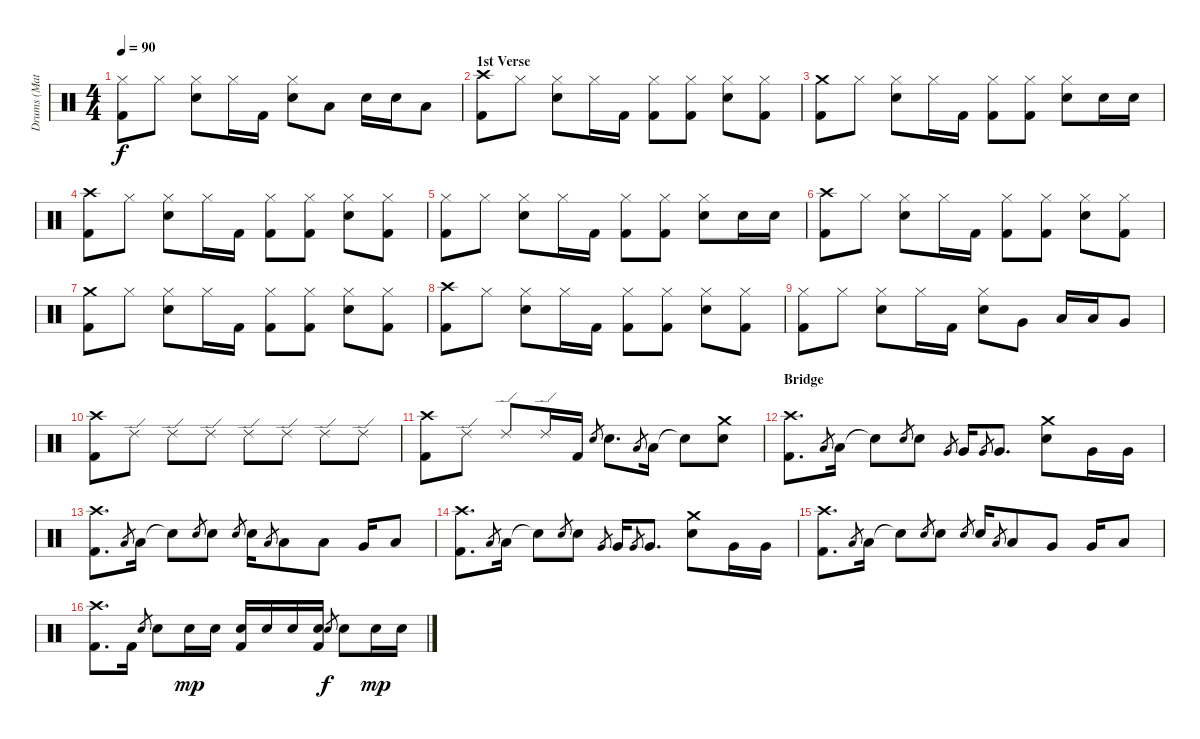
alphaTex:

\track ("Drums (Matt)" "Drums (Mat") {instrument percussion}
\staff {score}
\articulation defaults
\ts (4 4)
\tempo 90
\clef neutral
\ks c
("Hi-Hat (closed)" "Kick (hit) 2").8{dy f} "Hi-Hat (closed)".8 ("Hi-Hat (closed)" "Snare (hit) 2").8 "Hi-Hat (closed)".16 "Kick (hit) 2".16 ("Hi-Hat (closed)" "Snare (hit) 2").8 "Low Tom (hit)".8 "Snare (hit) 2".16 "Snare (hit) 2".16 "Low Tom (hit)".8 |
\section ("" "1st Verse")
("Crash high (hit)" "Kick (hit) 2").8 "Hi-Hat (closed)".8 ("Hi-Hat (closed)" "Snare (hit) 2").8 "Hi-Hat (closed)".16 "Kick (hit) 2".16 ("Hi-Hat (closed)" "Kick (hit) 2").8 ("Hi-Hat (closed)" "Kick (hit) 2").8 ("Hi-Hat (closed)" "Snare (hit) 2").8 ("Hi-Hat (closed)" "Kick (hit) 2").8 |
("Crash medium (hit)" "Kick (hit) 2").8 "Hi-Hat (closed)".8 ("Hi-Hat (closed)" "Snare (hit) 2").8 "Hi-Hat (closed)".16 "Kick (hit) 2".16 ("Hi-Hat (closed)" "Kick (hit) 2").8 ("Hi-Hat (closed)" "Kick (hit) 2").8 ("Hi-Hat (closed)" "Snare (hit) 2").8 "Snare (hit) 2".16 "Snare (hit) 2".16 |
("Crash high (hit)" "Kick (hit) 2").8 "Hi-Hat (closed)".8 ("Hi-Hat (closed)" "Snare (hit) 2").8 "Hi-Hat (closed)".16 "Kick (hit) 2".16 ("Hi-Hat (closed)" "Kick (hit) 2").8 ("Hi-Hat (closed)" "Kick (hit) 2").8 ("Hi-Hat (closed)" "Snare (hit) 2").8 ("Hi-Hat (closed)" "Kick (hit) 2").8 |
("Hi-Hat (closed)" "Kick (hit) 2").8 "Hi-Hat (closed)".8 ("Hi-Hat (closed)" "Snare (hit) 2").8 "Hi-Hat (closed)".16 "Kick (hit) 2".16 ("Hi-Hat (closed)" "Kick (hit) 2").8 ("Hi-Hat (closed)" "Kick (hit) 2").8 ("Hi-Hat (closed)" "Snare (hit) 2").8 "Snare (hit) 2".16 "Snare (hit) 2".16 |
("Crash high (hit)" "Kick (hit) 2").8 "Hi-Hat (closed)".8 ("Hi-Hat (closed)" "Snare (hit) 2").8 "Hi-Hat (closed)".16 "Kick (hit) 2".16 ("Hi-Hat (closed)" "Kick (hit) 2").8 ("Hi-Hat (closed)" "Kick (hit) 2").8 ("Hi-Hat (closed)" "Snare (hit) 2").8 ("Hi-Hat (closed)" "Kick (hit) 2").8 |
("Crash medium (hit)" "Kick (hit) 2").8 "Hi-Hat (closed)".8 ("Hi-Hat (closed)" "Snare (hit) 2").8 "Hi-Hat (closed)".16 "Kick (hit) 2".16 ("Hi-Hat (closed)" "Kick (hit) 2").8 ("Hi-Hat (closed)" "Kick (hit) 2").8 ("Hi-Hat (closed)" "Snare (hit) 2").8 ("Hi-Hat (closed)" "Kick (hit) 2").8 |
("Crash high (hit)" "Kick (hit) 2").8 "Hi-Hat (closed)".8 ("Hi-Hat (closed)" "Snare (hit) 2").8 "Hi-Hat (closed)".16 "Kick (hit) 2".16 ("Hi-Hat (closed)" "Kick (hit) 2").8 ("Hi-Hat (closed)" "Kick (hit) 2").8 ("Hi-Hat (closed)" "Snare (hit) 2").8 ("Hi-Hat (closed)" "Kick (hit) 2").8 |
("Hi-Hat (closed)" "Kick (hit) 2").8 "Hi-Hat (closed)".8 ("Hi-Hat (closed)" "Snare (hit) 2").8 "Hi-Hat (closed)".16 "Kick (hit) 2".16 ("Hi-Hat (closed)" "Snare (hit) 2").8 "Very Low Tom (hit)".8 "Low Tom (hit)".16 "Low Tom (hit)".16 "Very Low Tom (hit)".8 |
("Crash high (hit)" "Kick (hit) 2").8 "Ride (edge) 2".8 "Ride (edge) 2".8 "Ride (edge) 2".8 "Ride (edge) 2".8 "Ride (edge) 2".8 "Ride (edge) 2".8 "Ride (edge) 2".8 |
("Crash high (hit)" "Kick (hit) 2").8 "Ride (edge) 2".8 "Ride (edge) 2".8 "Ride (edge) 2".16 "Kick (hit) 2".16 "Snare (hit) 2".8{gr} "Snare (hit) 2".8{d} "Low Tom (hit)".8{gr} "Low Tom (hit)".16 "Snare (hit)"{t}.8 ("Crash medium (hit)" "Snare (hit) 2").8 |
\section ("" "Bridge")
("Crash high (hit)" "Kick (hit) 2").8{d} "Low Tom (hit)".8{gr} "Low Tom (hit)".16 "Snare (hit)"{t}.8 "Snare (hit) 2".8{gr} "Snare (hit) 2".8 "Very Low Tom (hit)".8{gr} "Very Low Tom (hit)".16 "Very Low Tom (hit)".8{gr} "Very Low Tom (hit)".8{d} ("Crash medium (hit)" "Snare (hit) 2").8 "Very Low Tom (hit)".16 "Very Low Tom (hit)".16 |
("Crash high (hit)" "Kick (hit) 2").8{d} "Low Tom (hit)".8{gr} "Low Tom (hit)".16 "Snare (hit)"{t}.8 "Snare (hit) 2".8{gr} "Snare (hit) 2".8 "Snare (hit) 2".8{gr} "Snare (hit) 2".16 "Low Tom (hit)".8{gr} "Low Tom (hit)".8 "Low Tom (hit)".8 "Very Low Tom (hit)".16 "Low Floor Tom (hit)".8 |
("Crash high (hit)" "Kick (hit) 2").8{d} "Low Tom (hit)".8{gr} "Low Tom (hit)".16 "Snare (hit)"{t}.8 "Snare (hit) 2".8{gr} "Snare (hit) 2".8 "Very Low Tom (hit)".8{gr} "Very Low Tom (hit)".16 "Very Low Tom (hit)".8{gr} "Very Low Tom (hit)".8{d} ("Crash medium (hit)" "Snare (hit) 2").8 "Very Low Tom (hit)".16 "Very Low Tom (hit)".16 |
("Crash high (hit)" "Kick (hit) 2").8{d} "Low Tom (hit)".8{gr} "Low Tom (hit)".16 "Snare (hit)"{t}.8 "Snare (hit) 2".8{gr} "Snare (hit) 2".8 "Snare (hit) 2".8{gr} "Snare (hit) 2".16 "Low Tom (hit)".8{gr} "Low Tom (hit)".8 "Very Low Tom (hit)".8 "Very Low Tom (hit)".16 "Low Floor Tom (hit)".8 |
("Crash high (hit)" "Kick (hit) 2").8{d} "Kick (hit) 2".16 "Snare (hit) 2".8{gr} "Snare (hit) 2".8 "Snare (hit) 2".16{dy mp} "Snare (hit) 2".16 ("Snare (hit) 2" "Kick (hit) 2").16 "Snare (hit) 2".16 "Snare (hit) 2".16 ("Snare (hit) 2" "Kick (hit) 2").16 "Snare (hit) 2".8{gr dy f} "Snare (hit) 2".8 "Snare (hit) 2".16{dy mp} "Snare (hit) 2".16
